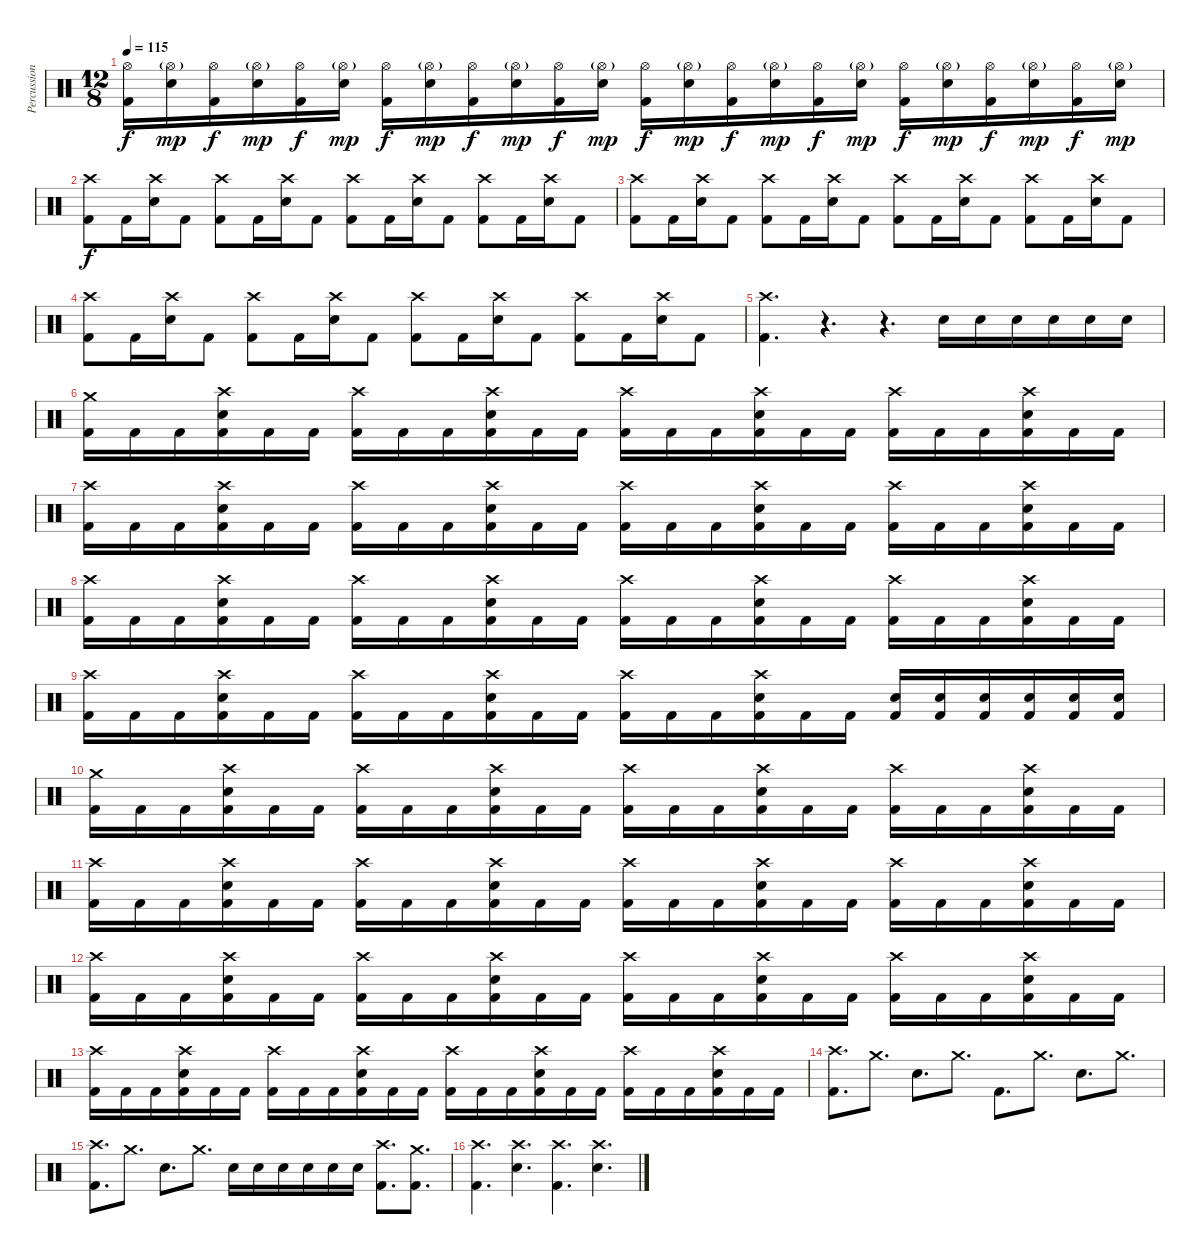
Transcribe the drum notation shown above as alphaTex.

\track ("Percussion" "Percussion") {instrument percussion}
\staff {score}
\articulation defaults
\ts (12 8)
\tempo 115
\clef neutral
\ks c
("Hi-Hat (open)" "Kick (hit) 2").16{dy f} ("Hi-Hat (open)"{g} "Electric Snare (hit)").16{dy mp} ("Hi-Hat (open)" "Kick (hit) 2").16{dy f} ("Hi-Hat (open)"{g} "Electric Snare (hit)").16{dy mp} ("Hi-Hat (open)" "Kick (hit) 2").16{dy f} ("Hi-Hat (open)"{g} "Electric Snare (hit)").16{dy mp} ("Hi-Hat (open)" "Kick (hit) 2").16{dy f} ("Hi-Hat (open)"{g} "Electric Snare (hit)").16{dy mp} ("Hi-Hat (open)" "Kick (hit) 2").16{dy f} ("Hi-Hat (open)"{g} "Electric Snare (hit)").16{dy mp} ("Hi-Hat (open)" "Kick (hit) 2").16{dy f} ("Hi-Hat (open)"{g} "Electric Snare (hit)").16{dy mp} ("Hi-Hat (open)" "Kick (hit) 2").16{dy f} ("Hi-Hat (open)"{g} "Electric Snare (hit)").16{dy mp} ("Hi-Hat (open)" "Kick (hit) 2").16{dy f} ("Hi-Hat (open)"{g} "Electric Snare (hit)").16{dy mp} ("Hi-Hat (open)" "Kick (hit) 2").16{dy f} ("Hi-Hat (open)"{g} "Electric Snare (hit)").16{dy mp} ("Hi-Hat (open)" "Kick (hit) 2").16{dy f} ("Hi-Hat (open)"{g} "Electric Snare (hit)").16{dy mp} ("Hi-Hat (open)" "Kick (hit) 2").16{dy f} ("Hi-Hat (open)"{g} "Electric Snare (hit)").16{dy mp} ("Hi-Hat (open)" "Kick (hit) 2").16{dy f} ("Hi-Hat (open)"{g} "Electric Snare (hit)").16{dy mp} |
("Crash high (hit)" "Kick (hit) 2").8{dy f} "Kick (hit) 2".16 ("Crash high (hit)" "Electric Snare (hit)").16 "Kick (hit) 2".8 ("Crash high (hit)" "Kick (hit) 2").8 "Kick (hit) 2".16 ("Crash high (hit)" "Electric Snare (hit)").16 "Kick (hit) 2".8 ("Crash high (hit)" "Kick (hit) 2").8 "Kick (hit) 2".16 ("Crash high (hit)" "Electric Snare (hit)").16 "Kick (hit) 2".8 ("Crash high (hit)" "Kick (hit) 2").8 "Kick (hit) 2".16 ("Crash high (hit)" "Electric Snare (hit)").16 "Kick (hit) 2".8 |
("Crash high (hit)" "Kick (hit) 2").8 "Kick (hit) 2".16 ("Crash high (hit)" "Electric Snare (hit)").16 "Kick (hit) 2".8 ("Crash high (hit)" "Kick (hit) 2").8 "Kick (hit) 2".16 ("Crash high (hit)" "Electric Snare (hit)").16 "Kick (hit) 2".8 ("Crash high (hit)" "Kick (hit) 2").8 "Kick (hit) 2".16 ("Crash high (hit)" "Electric Snare (hit)").16 "Kick (hit) 2".8 ("Crash high (hit)" "Kick (hit) 2").8 "Kick (hit) 2".16 ("Crash high (hit)" "Electric Snare (hit)").16 "Kick (hit) 2".8 |
("Crash high (hit)" "Kick (hit) 2").8 "Kick (hit) 2".16 ("Crash high (hit)" "Electric Snare (hit)").16 "Kick (hit) 2".8 ("Crash high (hit)" "Kick (hit) 2").8 "Kick (hit) 2".16 ("Crash high (hit)" "Electric Snare (hit)").16 "Kick (hit) 2".8 ("Crash high (hit)" "Kick (hit) 2").8 "Kick (hit) 2".16 ("Crash high (hit)" "Electric Snare (hit)").16 "Kick (hit) 2".8 ("Crash high (hit)" "Kick (hit) 2").8 "Kick (hit) 2".16 ("Crash high (hit)" "Electric Snare (hit)").16 "Kick (hit) 2".8 |
("Crash high (hit)" "Kick (hit) 2").4{d} r.4{d} r.4{d} "Electric Snare (hit)".16 "Electric Snare (hit)".16 "Electric Snare (hit)".16 "Electric Snare (hit)".16 "Electric Snare (hit)".16 "Electric Snare (hit)".16 |
("Crash medium (hit)" "Kick (hit) 2").16 "Kick (hit) 2".16 "Kick (hit) 2".16 ("Crash high (hit)" "Electric Snare (hit)" "Kick (hit) 2").16 "Kick (hit) 2".16 "Kick (hit) 2".16 ("Crash high (hit)" "Kick (hit) 2").16 "Kick (hit) 2".16 "Kick (hit) 2".16 ("Crash high (hit)" "Electric Snare (hit)" "Kick (hit) 2").16 "Kick (hit) 2".16 "Kick (hit) 2".16 ("Crash high (hit)" "Kick (hit) 2").16 "Kick (hit) 2".16 "Kick (hit) 2".16 ("Crash high (hit)" "Electric Snare (hit)" "Kick (hit) 2").16 "Kick (hit) 2".16 "Kick (hit) 2".16 ("Crash high (hit)" "Kick (hit) 2").16 "Kick (hit) 2".16 "Kick (hit) 2".16 ("Crash high (hit)" "Electric Snare (hit)" "Kick (hit) 2").16 "Kick (hit) 2".16 "Kick (hit) 2".16 |
("Crash high (hit)" "Kick (hit) 2").16 "Kick (hit) 2".16 "Kick (hit) 2".16 ("Crash high (hit)" "Electric Snare (hit)" "Kick (hit) 2").16 "Kick (hit) 2".16 "Kick (hit) 2".16 ("Crash high (hit)" "Kick (hit) 2").16 "Kick (hit) 2".16 "Kick (hit) 2".16 ("Crash high (hit)" "Electric Snare (hit)" "Kick (hit) 2").16 "Kick (hit) 2".16 "Kick (hit) 2".16 ("Crash high (hit)" "Kick (hit) 2").16 "Kick (hit) 2".16 "Kick (hit) 2".16 ("Crash high (hit)" "Electric Snare (hit)" "Kick (hit) 2").16 "Kick (hit) 2".16 "Kick (hit) 2".16 ("Crash high (hit)" "Kick (hit) 2").16 "Kick (hit) 2".16 "Kick (hit) 2".16 ("Crash high (hit)" "Electric Snare (hit)" "Kick (hit) 2").16 "Kick (hit) 2".16 "Kick (hit) 2".16 |
("Crash high (hit)" "Kick (hit) 2").16 "Kick (hit) 2".16 "Kick (hit) 2".16 ("Crash high (hit)" "Electric Snare (hit)" "Kick (hit) 2").16 "Kick (hit) 2".16 "Kick (hit) 2".16 ("Crash high (hit)" "Kick (hit) 2").16 "Kick (hit) 2".16 "Kick (hit) 2".16 ("Crash high (hit)" "Electric Snare (hit)" "Kick (hit) 2").16 "Kick (hit) 2".16 "Kick (hit) 2".16 ("Crash high (hit)" "Kick (hit) 2").16 "Kick (hit) 2".16 "Kick (hit) 2".16 ("Crash high (hit)" "Electric Snare (hit)" "Kick (hit) 2").16 "Kick (hit) 2".16 "Kick (hit) 2".16 ("Crash high (hit)" "Kick (hit) 2").16 "Kick (hit) 2".16 "Kick (hit) 2".16 ("Crash high (hit)" "Electric Snare (hit)" "Kick (hit) 2").16 "Kick (hit) 2".16 "Kick (hit) 2".16 |
("Crash high (hit)" "Kick (hit) 2").16 "Kick (hit) 2".16 "Kick (hit) 2".16 ("Crash high (hit)" "Electric Snare (hit)" "Kick (hit) 2").16 "Kick (hit) 2".16 "Kick (hit) 2".16 ("Crash high (hit)" "Kick (hit) 2").16 "Kick (hit) 2".16 "Kick (hit) 2".16 ("Crash high (hit)" "Electric Snare (hit)" "Kick (hit) 2").16 "Kick (hit) 2".16 "Kick (hit) 2".16 ("Crash high (hit)" "Kick (hit) 2").16 "Kick (hit) 2".16 "Kick (hit) 2".16 ("Crash high (hit)" "Electric Snare (hit)" "Kick (hit) 2").16 "Kick (hit) 2".16 "Kick (hit) 2".16 ("Electric Snare (hit)" "Kick (hit) 2").16 ("Electric Snare (hit)" "Kick (hit) 2").16 ("Electric Snare (hit)" "Kick (hit) 2").16 ("Electric Snare (hit)" "Kick (hit) 2").16 ("Electric Snare (hit)" "Kick (hit) 2").16 ("Electric Snare (hit)" "Kick (hit) 2").16 |
("Crash medium (hit)" "Kick (hit) 2").16 "Kick (hit) 2".16 "Kick (hit) 2".16 ("Crash high (hit)" "Electric Snare (hit)" "Kick (hit) 2").16 "Kick (hit) 2".16 "Kick (hit) 2".16 ("Crash high (hit)" "Kick (hit) 2").16 "Kick (hit) 2".16 "Kick (hit) 2".16 ("Crash high (hit)" "Electric Snare (hit)" "Kick (hit) 2").16 "Kick (hit) 2".16 "Kick (hit) 2".16 ("Crash high (hit)" "Kick (hit) 2").16 "Kick (hit) 2".16 "Kick (hit) 2".16 ("Crash high (hit)" "Electric Snare (hit)" "Kick (hit) 2").16 "Kick (hit) 2".16 "Kick (hit) 2".16 ("Crash high (hit)" "Kick (hit) 2").16 "Kick (hit) 2".16 "Kick (hit) 2".16 ("Crash high (hit)" "Electric Snare (hit)" "Kick (hit) 2").16 "Kick (hit) 2".16 "Kick (hit) 2".16 |
("Crash high (hit)" "Kick (hit) 2").16 "Kick (hit) 2".16 "Kick (hit) 2".16 ("Crash high (hit)" "Electric Snare (hit)" "Kick (hit) 2").16 "Kick (hit) 2".16 "Kick (hit) 2".16 ("Crash high (hit)" "Kick (hit) 2").16 "Kick (hit) 2".16 "Kick (hit) 2".16 ("Crash high (hit)" "Electric Snare (hit)" "Kick (hit) 2").16 "Kick (hit) 2".16 "Kick (hit) 2".16 ("Crash high (hit)" "Kick (hit) 2").16 "Kick (hit) 2".16 "Kick (hit) 2".16 ("Crash high (hit)" "Electric Snare (hit)" "Kick (hit) 2").16 "Kick (hit) 2".16 "Kick (hit) 2".16 ("Crash high (hit)" "Kick (hit) 2").16 "Kick (hit) 2".16 "Kick (hit) 2".16 ("Crash high (hit)" "Electric Snare (hit)" "Kick (hit) 2").16 "Kick (hit) 2".16 "Kick (hit) 2".16 |
("Crash high (hit)" "Kick (hit) 2").16 "Kick (hit) 2".16 "Kick (hit) 2".16 ("Crash high (hit)" "Electric Snare (hit)" "Kick (hit) 2").16 "Kick (hit) 2".16 "Kick (hit) 2".16 ("Crash high (hit)" "Kick (hit) 2").16 "Kick (hit) 2".16 "Kick (hit) 2".16 ("Crash high (hit)" "Electric Snare (hit)" "Kick (hit) 2").16 "Kick (hit) 2".16 "Kick (hit) 2".16 ("Crash high (hit)" "Kick (hit) 2").16 "Kick (hit) 2".16 "Kick (hit) 2".16 ("Crash high (hit)" "Electric Snare (hit)" "Kick (hit) 2").16 "Kick (hit) 2".16 "Kick (hit) 2".16 ("Crash high (hit)" "Kick (hit) 2").16 "Kick (hit) 2".16 "Kick (hit) 2".16 ("Crash high (hit)" "Electric Snare (hit)" "Kick (hit) 2").16 "Kick (hit) 2".16 "Kick (hit) 2".16 |
("Crash high (hit)" "Kick (hit) 2").16 "Kick (hit) 2".16 "Kick (hit) 2".16 ("Crash high (hit)" "Electric Snare (hit)" "Kick (hit) 2").16 "Kick (hit) 2".16 "Kick (hit) 2".16 ("Crash high (hit)" "Kick (hit) 2").16 "Kick (hit) 2".16 "Kick (hit) 2".16 ("Crash high (hit)" "Electric Snare (hit)" "Kick (hit) 2").16 "Kick (hit) 2".16 "Kick (hit) 2".16 ("Crash high (hit)" "Kick (hit) 2").16 "Kick (hit) 2".16 "Kick (hit) 2".16 ("Crash high (hit)" "Electric Snare (hit)" "Kick (hit) 2").16 "Kick (hit) 2".16 "Kick (hit) 2".16 ("Crash high (hit)" "Kick (hit) 2").16 "Kick (hit) 2".16 "Kick (hit) 2".16 ("Crash high (hit)" "Electric Snare (hit)" "Kick (hit) 2").16 "Kick (hit) 2".16 "Kick (hit) 2".16 |
("Crash high (hit)" "Kick (hit) 2").8{d} "Crash medium (hit)".8{d} "Electric Snare (hit)".8{d} "Crash medium (hit)".8{d} "Kick (hit) 2".8{d} "Crash medium (hit)".8{d} "Electric Snare (hit)".8{d} "Crash medium (hit)".8{d} |
("Crash high (hit)" "Kick (hit) 2").8{d} "Crash medium (hit)".8{d} "Electric Snare (hit)".8{d} "Crash medium (hit)".8{d} "Electric Snare (hit)".16 "Electric Snare (hit)".16 "Electric Snare (hit)".16 "Electric Snare (hit)".16 "Electric Snare (hit)".16 "Electric Snare (hit)".16 ("Crash high (hit)" "Kick (hit) 2").8{d} ("Crash medium (hit)" "Kick (hit) 2").8{d} |
("Crash high (hit)" "Kick (hit) 2").4{d} ("Crash high (hit)" "Electric Snare (hit)").4{d} ("Crash high (hit)" "Kick (hit) 2").4{d} ("Crash high (hit)" "Electric Snare (hit)").4{d}
